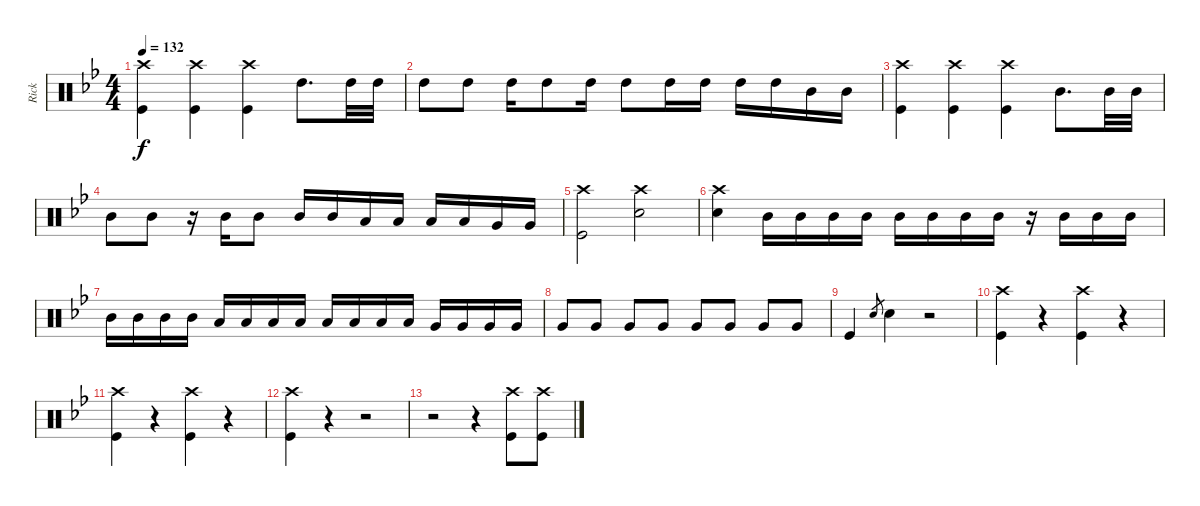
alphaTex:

\track ("Rick" "Rick") {instrument percussion}
\staff {score}
\articulation defaults
\ts (4 4)
\tempo 132
\clef neutral
\ks gminor
("Crash high (hit)" "Kick (hit)").4{dy f} ("Crash high (hit)" "Kick (hit)").4 ("Crash high (hit)" "Kick (hit)").4 "High Tom (hit)".8{d} "High Tom (hit)".32 "High Tom (hit)".32 |
"High Tom (hit)".8 "High Tom (hit)".8 "High Tom (hit)".16 "High Tom (hit)".8 "High Tom (hit)".16 "High Tom (hit)".8 "High Tom (hit)".16 "High Tom (hit)".16 "High Tom (hit)".16 "High Tom (hit)".16 "Mid Tom (hit)".16 "Mid Tom (hit)".16 |
("Crash high (hit)" "Kick (hit)").4 ("Crash high (hit)" "Kick (hit)").4 ("Crash high (hit)" "Kick (hit)").4 "Mid Tom (hit)".8{d} "Mid Tom (hit)".32 "Mid Tom (hit)".32 |
"Mid Tom (hit)".8 "Mid Tom (hit)".8 r.16 "Mid Tom (hit)".16 "Mid Tom (hit)".8 "Mid Tom (hit)".16 "Mid Tom (hit)".16 "Low Tom (hit)".16 "Low Tom (hit)".16 "Low Tom (hit)".16 "Low Tom (hit)".16 "Very Low Tom (hit)".16 "Very Low Tom (hit)".16 |
("Crash high (hit)" "Kick (hit)").2 ("Crash high (hit)" "Snare (hit) 2").2 |
("Crash high (hit)" "Snare (hit) 2").4 "Mid Tom (hit)".16 "Mid Tom (hit)".16 "Mid Tom (hit)".16 "Mid Tom (hit)".16 "Mid Tom (hit)".16 "Mid Tom (hit)".16 "Mid Tom (hit)".16 "Mid Tom (hit)".16 r.16 "Mid Tom (hit)".16 "Mid Tom (hit)".16 "Mid Tom (hit)".16 |
"Mid Tom (hit)".16 "Mid Tom (hit)".16 "Mid Tom (hit)".16 "Mid Tom (hit)".16 "Low Tom (hit)".16 "Low Tom (hit)".16 "Low Tom (hit)".16 "Low Tom (hit)".16 "Low Tom (hit)".16 "Low Tom (hit)".16 "Low Tom (hit)".16 "Low Tom (hit)".16 "Very Low Tom (hit)".16 "Very Low Tom (hit)".16 "Very Low Tom (hit)".16 "Very Low Tom (hit)".16 |
"Very Low Tom (hit)".8 "Very Low Tom (hit)".8 "Very Low Tom (hit)".8 "Very Low Tom (hit)".8 "Very Low Tom (hit)".8 "Very Low Tom (hit)".8 "Very Low Tom (hit)".8 "Very Low Tom (hit)".8 |
"Kick (hit)".4 "Snare (hit) 2".8{gr} "Snare (hit) 2".4 r.2 |
("Crash high (hit)" "Kick (hit)").4 r.4 ("Crash high (hit)" "Kick (hit)").4 r.4 |
("Crash high (hit)" "Kick (hit)").4 r.4 ("Crash high (hit)" "Kick (hit)").4 r.4 |
("Crash high (hit)" "Kick (hit)").4 r.4 r.2 |
r.2 r.4 ("Crash high (hit)" "Kick (hit)").8 ("Crash high (hit)" "Kick (hit)").8
